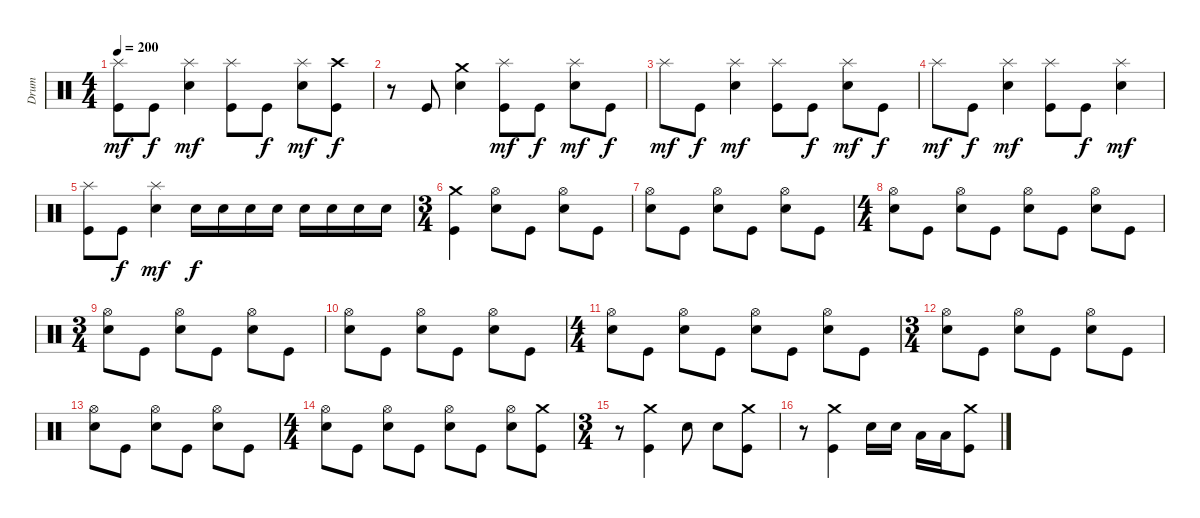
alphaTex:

\track ("Drum" "Drum") {instrument percussion}
\staff {score}
\articulation defaults
\ts (4 4)
\tempo 200
\clef neutral
\ks c
("Kick (hit)" "Splash (hit)").8{dy mf} "Kick (hit)".8{dy f} ("Electric Snare (hit)" "Splash (hit)").4{dy mf} ("Kick (hit)" "Splash (hit)").8 "Kick (hit)".8{dy f} ("Electric Snare (hit)" "Splash (hit)").8{dy mf} ("Kick (hit)" "Crash high (hit)").8{dy f} |
r.8 "Kick (hit)".8 ("Electric Snare (hit)" "Crash medium (hit)").4 ("Kick (hit)" "Splash (hit)").8{dy mf} "Kick (hit)".8{dy f} ("Electric Snare (hit)" "Splash (hit)").8{dy mf} "Kick (hit)".8{dy f} |
"Splash (hit)".8{dy mf} "Kick (hit)".8{dy f} ("Electric Snare (hit)" "Splash (hit)").4{dy mf} ("Kick (hit)" "Splash (hit)").8 "Kick (hit)".8{dy f} ("Electric Snare (hit)" "Splash (hit)").8{dy mf} "Kick (hit)".8{dy f} |
"Splash (hit)".8{dy mf} "Kick (hit)".8{dy f} ("Electric Snare (hit)" "Splash (hit)").4{dy mf} ("Kick (hit)" "Splash (hit)").8 "Kick (hit)".8{dy f} ("Electric Snare (hit)" "Splash (hit)").4{dy mf} |
("Kick (hit)" "Splash (hit)").8 "Kick (hit)".8{dy f} ("Electric Snare (hit)" "Splash (hit)").4{dy mf} "Electric Snare (hit)".16{dy f} "Electric Snare (hit)".16 "Electric Snare (hit)".16 "Electric Snare (hit)".16 "Electric Snare (hit)".16 "Electric Snare (hit)".16 "Electric Snare (hit)".16 "Electric Snare (hit)".16 |
\ts (3 4)
("Kick (hit)" "Crash medium (hit)").4 ("Electric Snare (hit)" "Hi-Hat (open)").8 "Kick (hit)".8 ("Electric Snare (hit)" "Hi-Hat (open)").8 "Kick (hit)".8 |
("Electric Snare (hit)" "Hi-Hat (open)").8 "Kick (hit)".8 ("Electric Snare (hit)" "Hi-Hat (open)").8 "Kick (hit)".8 ("Electric Snare (hit)" "Hi-Hat (open)").8 "Kick (hit)".8 |
\ts (4 4)
("Electric Snare (hit)" "Hi-Hat (open)").8 "Kick (hit)".8 ("Electric Snare (hit)" "Hi-Hat (open)").8 "Kick (hit)".8 ("Electric Snare (hit)" "Hi-Hat (open)").8 "Kick (hit)".8 ("Electric Snare (hit)" "Hi-Hat (open)").8 "Kick (hit)".8 |
\ts (3 4)
("Electric Snare (hit)" "Hi-Hat (open)").8 "Kick (hit)".8 ("Electric Snare (hit)" "Hi-Hat (open)").8 "Kick (hit)".8 ("Electric Snare (hit)" "Hi-Hat (open)").8 "Kick (hit)".8 |
("Electric Snare (hit)" "Hi-Hat (open)").8 "Kick (hit)".8 ("Electric Snare (hit)" "Hi-Hat (open)").8 "Kick (hit)".8 ("Electric Snare (hit)" "Hi-Hat (open)").8 "Kick (hit)".8 |
\ts (4 4)
("Electric Snare (hit)" "Hi-Hat (open)").8 "Kick (hit)".8 ("Electric Snare (hit)" "Hi-Hat (open)").8 "Kick (hit)".8 ("Electric Snare (hit)" "Hi-Hat (open)").8 "Kick (hit)".8 ("Electric Snare (hit)" "Hi-Hat (open)").8 "Kick (hit)".8 |
\ts (3 4)
("Electric Snare (hit)" "Hi-Hat (open)").8 "Kick (hit)".8 ("Electric Snare (hit)" "Hi-Hat (open)").8 "Kick (hit)".8 ("Electric Snare (hit)" "Hi-Hat (open)").8 "Kick (hit)".8 |
("Electric Snare (hit)" "Hi-Hat (open)").8 "Kick (hit)".8 ("Electric Snare (hit)" "Hi-Hat (open)").8 "Kick (hit)".8 ("Electric Snare (hit)" "Hi-Hat (open)").8 "Kick (hit)".8 |
\ts (4 4)
("Electric Snare (hit)" "Hi-Hat (open)").8 "Kick (hit)".8 ("Electric Snare (hit)" "Hi-Hat (open)").8 "Kick (hit)".8 ("Electric Snare (hit)" "Hi-Hat (open)").8 "Kick (hit)".8 ("Electric Snare (hit)" "Hi-Hat (open)").8 ("Kick (hit)" "Crash medium (hit)").8 |
\ts (3 4)
r.8 ("Kick (hit)" "Crash medium (hit)").4 "Electric Snare (hit)".8 "Electric Snare (hit)".8 ("Kick (hit)" "Crash medium (hit)").8 |
r.8 ("Kick (hit)" "Crash medium (hit)").4 "Electric Snare (hit)".16 "Electric Snare (hit)".16 "Low Tom (hit)".16 "Low Tom (hit)".16 ("Kick (hit)" "Crash medium (hit)").8
